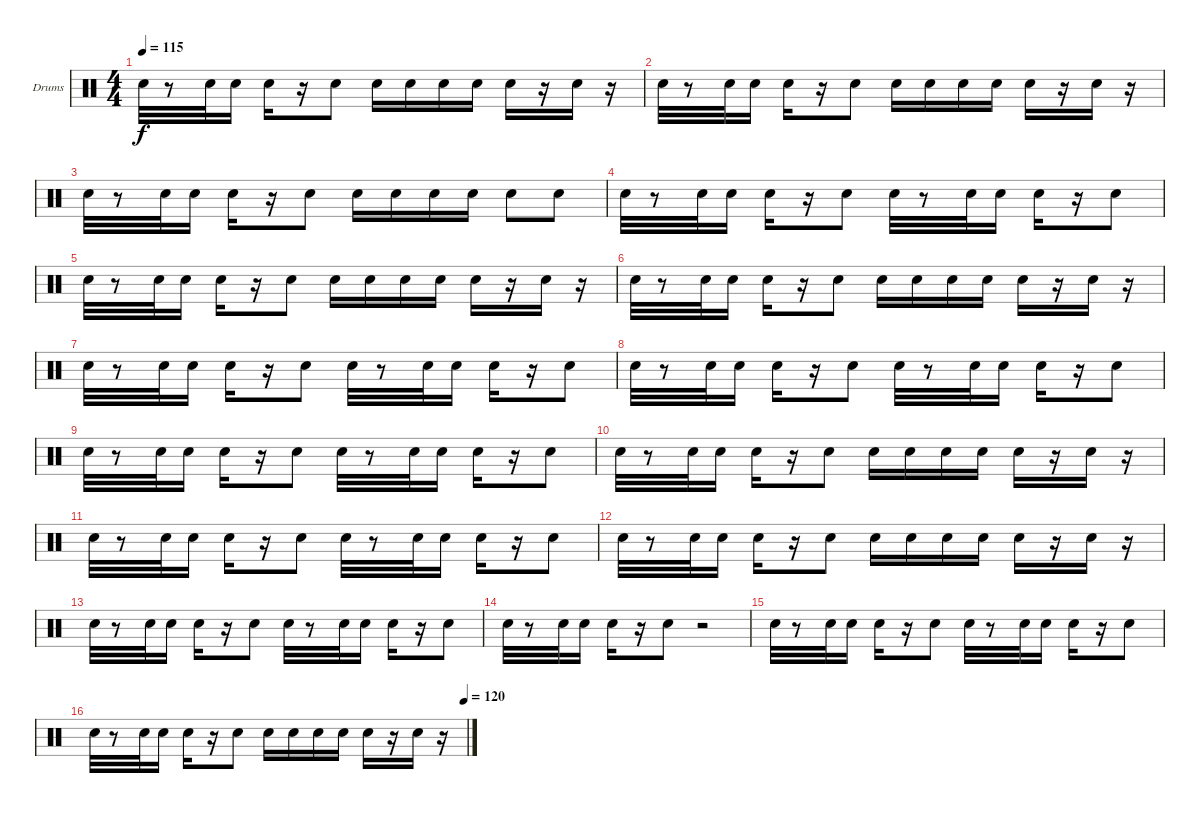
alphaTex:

\bracketExtendMode groupsimilarinstruments
\firstSystemTrackNameOrientation horizontal
\otherSystemsTrackNameOrientation horizontal
\track ("Drumkit" "Drums") {instrument percussion}
\staff {score}
\articulation defaults
\ts (4 4)
\tempo 115
\clef neutral
\ks c "Snare (hit) 2".32{dy f}
r.8 "Snare (hit) 2".32 "Snare (hit) 2".16 "Snare (hit) 2".16 r.16 "Snare (hit) 2".8 "Snare (hit) 2".16 "Snare (hit) 2".16 "Snare (hit) 2".16 "Snare (hit) 2".16 "Snare (hit) 2".16 r.16 "Snare (hit) 2".16 r.16 |
"Snare (hit) 2".32 r.8 "Snare (hit) 2".32 "Snare (hit) 2".16 "Snare (hit) 2".16 r.16 "Snare (hit) 2".8 "Snare (hit) 2".16 "Snare (hit) 2".16 "Snare (hit) 2".16 "Snare (hit) 2".16 "Snare (hit) 2".16 r.16 "Snare (hit) 2".16 r.16 |
"Snare (hit) 2".32 r.8 "Snare (hit) 2".32 "Snare (hit) 2".16 "Snare (hit) 2".16 r.16 "Snare (hit) 2".8 "Snare (hit) 2".16 "Snare (hit) 2".16 "Snare (hit) 2".16 "Snare (hit) 2".16 "Snare (hit) 2".8 "Snare (hit) 2".8 |
"Snare (hit) 2".32 r.8 "Snare (hit) 2".32 "Snare (hit) 2".16 "Snare (hit) 2".16 r.16 "Snare (hit) 2".8 "Snare (hit) 2".32 r.8 "Snare (hit) 2".32 "Snare (hit) 2".16 "Snare (hit) 2".16 r.16 "Snare (hit) 2".8 |
"Snare (hit) 2".32 r.8 "Snare (hit) 2".32 "Snare (hit) 2".16 "Snare (hit) 2".16 r.16 "Snare (hit) 2".8 "Snare (hit) 2".16 "Snare (hit) 2".16 "Snare (hit) 2".16 "Snare (hit) 2".16 "Snare (hit) 2".16 r.16 "Snare (hit) 2".16 r.16 |
"Snare (hit) 2".32 r.8 "Snare (hit) 2".32 "Snare (hit) 2".16 "Snare (hit) 2".16 r.16 "Snare (hit) 2".8 "Snare (hit) 2".16 "Snare (hit) 2".16 "Snare (hit) 2".16 "Snare (hit) 2".16 "Snare (hit) 2".16 r.16 "Snare (hit) 2".16 r.16 |
"Snare (hit) 2".32 r.8 "Snare (hit) 2".32 "Snare (hit) 2".16 "Snare (hit) 2".16 r.16 "Snare (hit) 2".8 "Snare (hit) 2".32 r.8 "Snare (hit) 2".32 "Snare (hit) 2".16 "Snare (hit) 2".16 r.16 "Snare (hit) 2".8 |
"Snare (hit) 2".32 r.8 "Snare (hit) 2".32 "Snare (hit) 2".16 "Snare (hit) 2".16 r.16 "Snare (hit) 2".8 "Snare (hit) 2".32 r.8 "Snare (hit) 2".32 "Snare (hit) 2".16 "Snare (hit) 2".16 r.16 "Snare (hit) 2".8 |
"Snare (hit) 2".32 r.8 "Snare (hit) 2".32 "Snare (hit) 2".16 "Snare (hit) 2".16 r.16 "Snare (hit) 2".8 "Snare (hit) 2".32 r.8 "Snare (hit) 2".32 "Snare (hit) 2".16 "Snare (hit) 2".16 r.16 "Snare (hit) 2".8 |
"Snare (hit) 2".32 r.8 "Snare (hit) 2".32 "Snare (hit) 2".16 "Snare (hit) 2".16 r.16 "Snare (hit) 2".8 "Snare (hit) 2".16 "Snare (hit) 2".16 "Snare (hit) 2".16 "Snare (hit) 2".16 "Snare (hit) 2".16 r.16 "Snare (hit) 2".16 r.16 |
"Snare (hit) 2".32 r.8 "Snare (hit) 2".32 "Snare (hit) 2".16 "Snare (hit) 2".16 r.16 "Snare (hit) 2".8 "Snare (hit) 2".32 r.8 "Snare (hit) 2".32 "Snare (hit) 2".16 "Snare (hit) 2".16 r.16 "Snare (hit) 2".8 |
"Snare (hit) 2".32 r.8 "Snare (hit) 2".32 "Snare (hit) 2".16 "Snare (hit) 2".16 r.16 "Snare (hit) 2".8 "Snare (hit) 2".16 "Snare (hit) 2".16 "Snare (hit) 2".16 "Snare (hit) 2".16 "Snare (hit) 2".16 r.16 "Snare (hit) 2".16 r.16 |
"Snare (hit) 2".32 r.8 "Snare (hit) 2".32 "Snare (hit) 2".16 "Snare (hit) 2".16 r.16 "Snare (hit) 2".8 "Snare (hit) 2".32 r.8 "Snare (hit) 2".32 "Snare (hit) 2".16 "Snare (hit) 2".16 r.16 "Snare (hit) 2".8 |
"Snare (hit) 2".32 r.8 "Snare (hit) 2".32 "Snare (hit) 2".16 "Snare (hit) 2".16 r.16 "Snare (hit) 2".8 r.2 |
"Snare (hit) 2".32 r.8 "Snare (hit) 2".32 "Snare (hit) 2".16 "Snare (hit) 2".16 r.16 "Snare (hit) 2".8 "Snare (hit) 2".32 r.8 "Snare (hit) 2".32 "Snare (hit) 2".16 "Snare (hit) 2".16 r.16 "Snare (hit) 2".8 |
\tempo (120 0.99375)
"Snare (hit) 2".32 r.8 "Snare (hit) 2".32 "Snare (hit) 2".16 "Snare (hit) 2".16 r.16 "Snare (hit) 2".8 "Snare (hit) 2".16 "Snare (hit) 2".16 "Snare (hit) 2".16 "Snare (hit) 2".16 "Snare (hit) 2".16 r.16 "Snare (hit) 2".16 r.16
